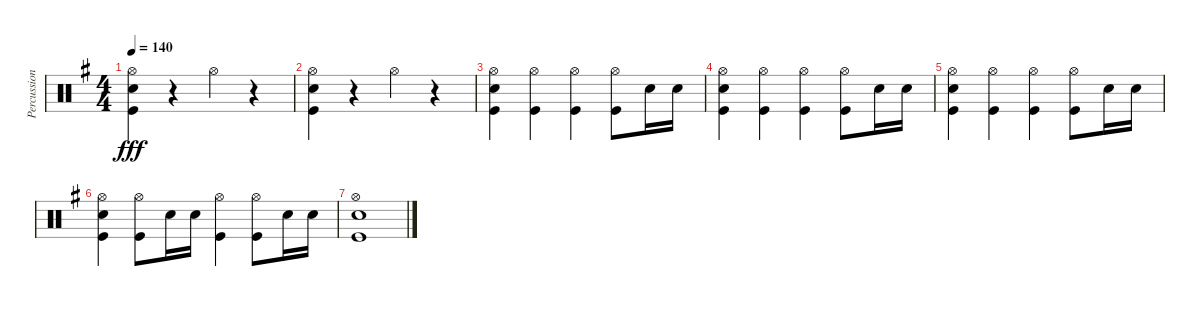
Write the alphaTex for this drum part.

\track ("Percussion" "Percussion") {instrument percussion}
\staff {score}
\articulation defaults
\ts (4 4)
\tempo 140
\clef neutral
\ks eminor
("Hi-Hat (open)" "Snare (hit) 2" "Kick (hit)").4{dy fff} r.4 "Hi-Hat (open)".4 r.4 |
("Hi-Hat (open)" "Snare (hit) 2" "Kick (hit)").4 r.4 "Hi-Hat (open)".4 r.4 |
("Hi-Hat (open)" "Snare (hit) 2" "Kick (hit)").4 ("Hi-Hat (open)" "Kick (hit)").4 ("Hi-Hat (open)" "Kick (hit)").4 ("Hi-Hat (open)" "Kick (hit)").8 "Snare (hit) 2".16 "Snare (hit) 2".16 |
("Hi-Hat (open)" "Snare (hit) 2" "Kick (hit)").4 ("Hi-Hat (open)" "Kick (hit)").4 ("Hi-Hat (open)" "Kick (hit)").4 ("Hi-Hat (open)" "Kick (hit)").8 "Snare (hit) 2".16 "Snare (hit) 2".16 |
("Hi-Hat (open)" "Snare (hit) 2" "Kick (hit)").4 ("Hi-Hat (open)" "Kick (hit)").4 ("Hi-Hat (open)" "Kick (hit)").4 ("Hi-Hat (open)" "Kick (hit)").8 "Snare (hit) 2".16 "Snare (hit) 2".16 |
("Hi-Hat (open)" "Snare (hit) 2" "Kick (hit)").4 ("Hi-Hat (open)" "Kick (hit)").8 "Snare (hit) 2".16 "Snare (hit) 2".16 ("Hi-Hat (open)" "Kick (hit)").4 ("Hi-Hat (open)" "Kick (hit)").8 "Snare (hit) 2".16 "Snare (hit) 2".16 |
("Hi-Hat (open)" "Snare (hit) 2" "Kick (hit)").1
